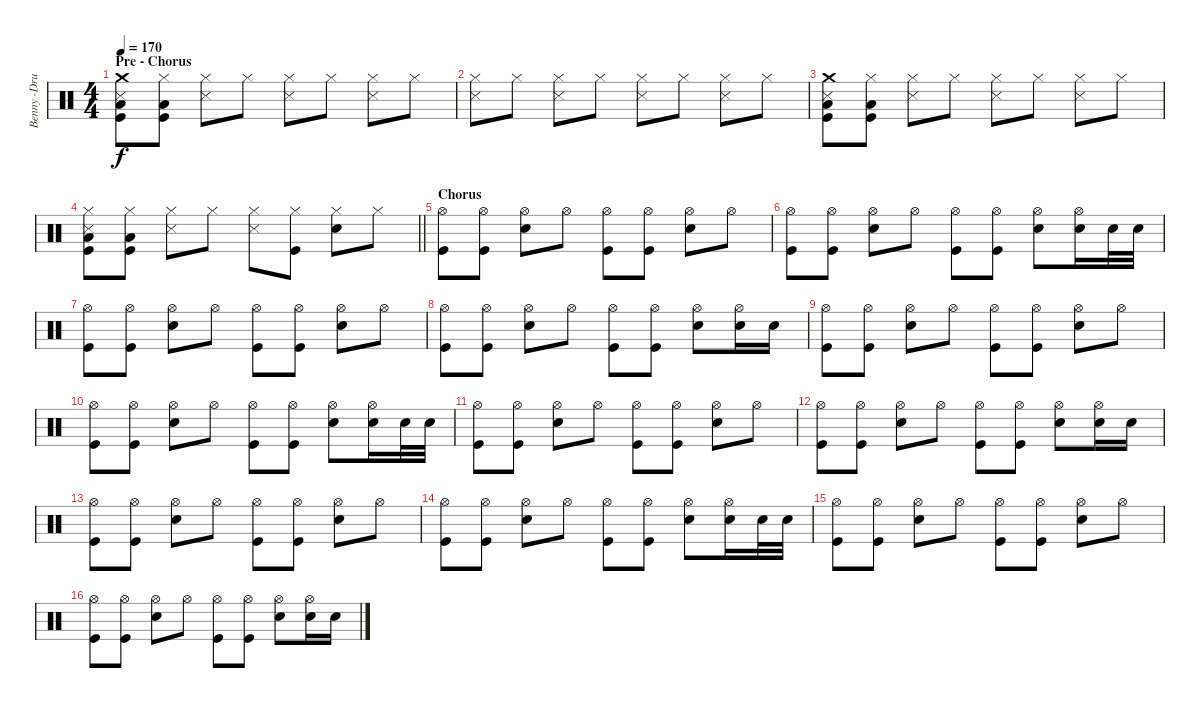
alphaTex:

\track ("Benny -Drums" "Benny -Dru") {instrument percussion}
\staff {score}
\articulation defaults
\ts (4 4)
\section ("" "Pre - Chorus")
\tempo 170
\clef neutral
\ks c
("Crash medium (hit)" "Snare (side stick) 3" "Low Floor Tom (hit)" "Kick (hit)").8{dy f} ("Hi-Hat (closed)" "Low Floor Tom (hit)" "Kick (hit)").8 ("Hi-Hat (closed)" "Snare (side stick) 3").8 "Hi-Hat (closed)".8 ("Hi-Hat (closed)" "Snare (side stick) 3").8 "Hi-Hat (closed)".8 ("Hi-Hat (closed)" "Snare (side stick) 3").8 "Hi-Hat (closed)".8 |
("Hi-Hat (closed)" "Snare (side stick) 3").8 "Hi-Hat (closed)".8 ("Hi-Hat (closed)" "Snare (side stick) 3").8 "Hi-Hat (closed)".8 ("Hi-Hat (closed)" "Snare (side stick) 3").8 "Hi-Hat (closed)".8 ("Hi-Hat (closed)" "Snare (side stick) 3").8 "Hi-Hat (closed)".8 |
("Crash medium (hit)" "Snare (side stick) 3" "Low Floor Tom (hit)" "Kick (hit)").8 ("Hi-Hat (closed)" "Low Floor Tom (hit)" "Kick (hit)").8 ("Hi-Hat (closed)" "Snare (side stick) 3").8 "Hi-Hat (closed)".8 ("Hi-Hat (closed)" "Snare (side stick) 3").8 "Hi-Hat (closed)".8 ("Hi-Hat (closed)" "Snare (side stick) 3").8 "Hi-Hat (closed)".8 |
\barLineRight lightlight
("Hi-Hat (closed)" "Snare (side stick) 3" "Low Floor Tom (hit)" "Kick (hit)").8 ("Hi-Hat (closed)" "Low Floor Tom (hit)" "Kick (hit)").8 ("Hi-Hat (closed)" "Snare (side stick) 3").8 "Hi-Hat (closed)".8 ("Hi-Hat (closed)" "Snare (side stick) 3").8 ("Hi-Hat (closed)" "Kick (hit)").8 ("Hi-Hat (closed)" "Electric Snare (hit)").8 "Hi-Hat (closed)".8 |
\section ("" "Chorus")
("Hi-Hat (open)" "Kick (hit)").8 ("Hi-Hat (open)" "Kick (hit)").8 ("Hi-Hat (open)" "Snare (hit) 2").8 "Hi-Hat (open)".8 ("Hi-Hat (open)" "Kick (hit)").8 ("Hi-Hat (open)" "Kick (hit)").8 ("Hi-Hat (open)" "Snare (hit) 2").8 "Hi-Hat (open)".8 |
("Hi-Hat (open)" "Kick (hit)").8 ("Hi-Hat (open)" "Kick (hit)").8 ("Hi-Hat (open)" "Snare (hit) 2").8 "Hi-Hat (open)".8 ("Hi-Hat (open)" "Kick (hit)").8 ("Hi-Hat (open)" "Kick (hit)").8 ("Hi-Hat (open)" "Snare (hit) 2").8 ("Hi-Hat (open)" "Snare (hit) 2").16 "Snare (hit) 2".32 "Snare (hit) 2".32 |
("Hi-Hat (open)" "Kick (hit)").8 ("Hi-Hat (open)" "Kick (hit)").8 ("Hi-Hat (open)" "Snare (hit) 2").8 "Hi-Hat (open)".8 ("Hi-Hat (open)" "Kick (hit)").8 ("Hi-Hat (open)" "Kick (hit)").8 ("Hi-Hat (open)" "Snare (hit) 2").8 "Hi-Hat (open)".8 |
("Hi-Hat (open)" "Kick (hit)").8 ("Hi-Hat (open)" "Kick (hit)").8 ("Hi-Hat (open)" "Snare (hit) 2").8 "Hi-Hat (open)".8 ("Hi-Hat (open)" "Kick (hit)").8 ("Hi-Hat (open)" "Kick (hit)").8 ("Hi-Hat (open)" "Snare (hit) 2").8 ("Hi-Hat (open)" "Snare (hit) 2").16 "Snare (hit) 2".16 |
("Hi-Hat (open)" "Kick (hit)").8 ("Hi-Hat (open)" "Kick (hit)").8 ("Hi-Hat (open)" "Snare (hit) 2").8 "Hi-Hat (open)".8 ("Hi-Hat (open)" "Kick (hit)").8 ("Hi-Hat (open)" "Kick (hit)").8 ("Hi-Hat (open)" "Snare (hit) 2").8 "Hi-Hat (open)".8 |
("Hi-Hat (open)" "Kick (hit)").8 ("Hi-Hat (open)" "Kick (hit)").8 ("Hi-Hat (open)" "Snare (hit) 2").8 "Hi-Hat (open)".8 ("Hi-Hat (open)" "Kick (hit)").8 ("Hi-Hat (open)" "Kick (hit)").8 ("Hi-Hat (open)" "Snare (hit) 2").8 ("Hi-Hat (open)" "Snare (hit) 2").16 "Snare (hit) 2".32 "Snare (hit) 2".32 |
("Hi-Hat (open)" "Kick (hit)").8 ("Hi-Hat (open)" "Kick (hit)").8 ("Hi-Hat (open)" "Snare (hit) 2").8 "Hi-Hat (open)".8 ("Hi-Hat (open)" "Kick (hit)").8 ("Hi-Hat (open)" "Kick (hit)").8 ("Hi-Hat (open)" "Snare (hit) 2").8 "Hi-Hat (open)".8 |
("Hi-Hat (open)" "Kick (hit)").8 ("Hi-Hat (open)" "Kick (hit)").8 ("Hi-Hat (open)" "Snare (hit) 2").8 "Hi-Hat (open)".8 ("Hi-Hat (open)" "Kick (hit)").8 ("Hi-Hat (open)" "Kick (hit)").8 ("Hi-Hat (open)" "Snare (hit) 2").8 ("Hi-Hat (open)" "Snare (hit) 2").16 "Snare (hit) 2".16 |
("Hi-Hat (open)" "Kick (hit)").8 ("Hi-Hat (open)" "Kick (hit)").8 ("Hi-Hat (open)" "Snare (hit) 2").8 "Hi-Hat (open)".8 ("Hi-Hat (open)" "Kick (hit)").8 ("Hi-Hat (open)" "Kick (hit)").8 ("Hi-Hat (open)" "Snare (hit) 2").8 "Hi-Hat (open)".8 |
("Hi-Hat (open)" "Kick (hit)").8 ("Hi-Hat (open)" "Kick (hit)").8 ("Hi-Hat (open)" "Snare (hit) 2").8 "Hi-Hat (open)".8 ("Hi-Hat (open)" "Kick (hit)").8 ("Hi-Hat (open)" "Kick (hit)").8 ("Hi-Hat (open)" "Snare (hit) 2").8 ("Hi-Hat (open)" "Snare (hit) 2").16 "Snare (hit) 2".32 "Snare (hit) 2".32 |
("Hi-Hat (open)" "Kick (hit)").8 ("Hi-Hat (open)" "Kick (hit)").8 ("Hi-Hat (open)" "Snare (hit) 2").8 "Hi-Hat (open)".8 ("Hi-Hat (open)" "Kick (hit)").8 ("Hi-Hat (open)" "Kick (hit)").8 ("Hi-Hat (open)" "Snare (hit) 2").8 "Hi-Hat (open)".8 |
("Hi-Hat (open)" "Kick (hit)").8 ("Hi-Hat (open)" "Kick (hit)").8 ("Hi-Hat (open)" "Snare (hit) 2").8 "Hi-Hat (open)".8 ("Hi-Hat (open)" "Kick (hit)").8 ("Hi-Hat (open)" "Kick (hit)").8 ("Hi-Hat (open)" "Snare (hit) 2").8 ("Hi-Hat (open)" "Snare (hit) 2").16 "Snare (hit) 2".16
